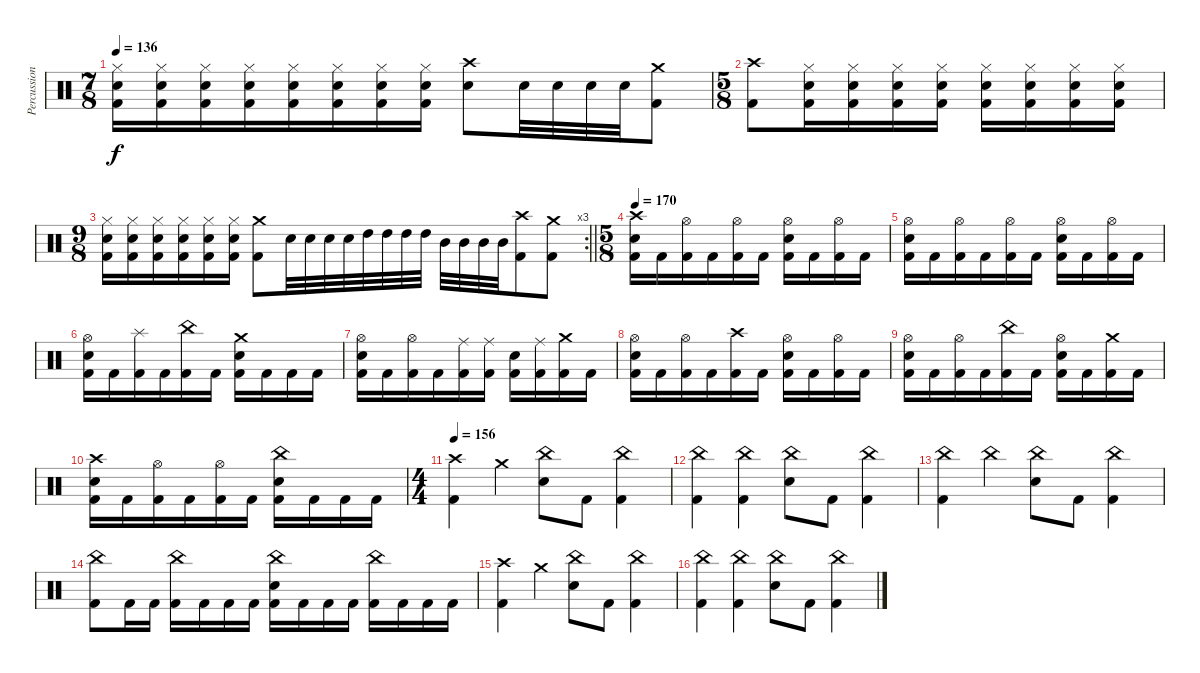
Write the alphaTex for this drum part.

\track ("Percussion" "Percussion") {instrument percussion}
\staff {score}
\articulation defaults
\ts (7 8)
\tempo 136
\clef neutral
\ks c
("Hi-Hat (closed)" "Electric Snare (hit)" "Kick (hit) 2").16{dy f} ("Hi-Hat (closed)" "Electric Snare (hit)" "Kick (hit) 2").16 ("Hi-Hat (closed)" "Electric Snare (hit)" "Kick (hit) 2").16 ("Hi-Hat (closed)" "Electric Snare (hit)" "Kick (hit) 2").16 ("Hi-Hat (closed)" "Electric Snare (hit)" "Kick (hit) 2").16 ("Hi-Hat (closed)" "Electric Snare (hit)" "Kick (hit) 2").16 ("Hi-Hat (closed)" "Electric Snare (hit)" "Kick (hit) 2").16 ("Hi-Hat (closed)" "Electric Snare (hit)" "Kick (hit) 2").16 ("Crash high (hit)" "Electric Snare (hit)").8 "Electric Snare (hit)".32 "Electric Snare (hit)".32 "Electric Snare (hit)".32 "Electric Snare (hit)".32 ("Crash medium (hit)" "Kick (hit) 2").8 |
\ts (5 8)
("Crash high (hit)" "Kick (hit) 2").8 ("Hi-Hat (closed)" "Electric Snare (hit)" "Kick (hit) 2").16 ("Hi-Hat (closed)" "Electric Snare (hit)" "Kick (hit) 2").16 ("Hi-Hat (closed)" "Electric Snare (hit)" "Kick (hit) 2").16 ("Hi-Hat (closed)" "Electric Snare (hit)" "Kick (hit) 2").16 ("Hi-Hat (closed)" "Electric Snare (hit)" "Kick (hit) 2").16 ("Hi-Hat (closed)" "Electric Snare (hit)" "Kick (hit) 2").16 ("Hi-Hat (closed)" "Electric Snare (hit)" "Kick (hit) 2").16 ("Hi-Hat (closed)" "Electric Snare (hit)" "Kick (hit) 2").16 |
\rc 3
\ts (9 8)
\barLineRight lightlight
("Hi-Hat (closed)" "Electric Snare (hit)" "Kick (hit) 2").16 ("Hi-Hat (closed)" "Electric Snare (hit)" "Kick (hit) 2").16 ("Hi-Hat (closed)" "Electric Snare (hit)" "Kick (hit) 2").16 ("Hi-Hat (closed)" "Electric Snare (hit)" "Kick (hit) 2").16 ("Hi-Hat (closed)" "Electric Snare (hit)" "Kick (hit) 2").16 ("Hi-Hat (closed)" "Electric Snare (hit)" "Kick (hit) 2").16 ("Crash medium (hit)" "Kick (hit) 2").8 "Electric Snare (hit)".32 "Electric Snare (hit)".32 "Electric Snare (hit)".32 "Electric Snare (hit)".32 "High Tom (hit)".32 "High Tom (hit)".32 "High Tom (hit)".32 "High Tom (hit)".32 "Mid Tom (hit)".32 "Mid Tom (hit)".32 "Mid Tom (hit)".32 "Mid Tom (hit)".32 ("Crash high (hit)" "Kick (hit) 2").8 ("Crash medium (hit)" "Kick (hit) 2").8 |
\ts (5 8)
\tempo 170
("Crash high (hit)" "Electric Snare (hit)" "Kick (hit) 2").16 "Kick (hit) 2".16 ("Hi-Hat (open)" "Kick (hit) 2").16 "Kick (hit) 2".16 ("Hi-Hat (open)" "Kick (hit) 2").16 "Kick (hit) 2".16 ("Hi-Hat (open)" "Electric Snare (hit)" "Kick (hit) 2").16 "Kick (hit) 2".16 ("Hi-Hat (open)" "Kick (hit) 2").16 "Kick (hit) 2".16 |
("Hi-Hat (open)" "Electric Snare (hit)" "Kick (hit) 2").16 "Kick (hit) 2".16 ("Hi-Hat (open)" "Kick (hit) 2").16 "Kick (hit) 2".16 ("Hi-Hat (open)" "Kick (hit) 2").16 "Kick (hit) 2".16 ("Hi-Hat (open)" "Electric Snare (hit)" "Kick (hit) 2").16 "Kick (hit) 2".16 ("Hi-Hat (open)" "Kick (hit) 2").16 "Kick (hit) 2".16 |
("Hi-Hat (open)" "Electric Snare (hit)" "Kick (hit) 2").16 "Kick (hit) 2".16 ("Splash (hit)" "Kick (hit) 2").16 "Kick (hit) 2".16 ("China (hit)" "Kick (hit) 2").16 "Kick (hit) 2".16 ("Crash medium (hit)" "Electric Snare (hit)" "Kick (hit) 2").16 "Kick (hit) 2".16 "Kick (hit) 2".16 "Kick (hit) 2".16 |
("Hi-Hat (open)" "Electric Snare (hit)" "Kick (hit) 2").16 "Kick (hit) 2".16 ("Hi-Hat (open)" "Kick (hit) 2").16 "Kick (hit) 2".16 ("Ride (middle)" "Kick (hit) 2").16 ("Ride (middle)" "Kick (hit) 2").16 ("Electric Snare (hit)" "Kick (hit) 2").16 ("Ride (middle)" "Kick (hit) 2").16 ("Crash medium (hit)" "Kick (hit) 2").16 "Kick (hit) 2".16 |
("Hi-Hat (open)" "Electric Snare (hit)" "Kick (hit) 2").16 "Kick (hit) 2".16 ("Hi-Hat (open)" "Kick (hit) 2").16 "Kick (hit) 2".16 ("Crash high (hit)" "Kick (hit) 2").16 "Kick (hit) 2".16 ("Hi-Hat (open)" "Electric Snare (hit)" "Kick (hit) 2").16 "Kick (hit) 2".16 ("Hi-Hat (open)" "Kick (hit) 2").16 "Kick (hit) 2".16 |
("Hi-Hat (open)" "Electric Snare (hit)" "Kick (hit) 2").16 "Kick (hit) 2".16 ("Hi-Hat (open)" "Kick (hit) 2").16 "Kick (hit) 2".16 ("China (hit)" "Kick (hit) 2").16 "Kick (hit) 2".16 ("Hi-Hat (open)" "Electric Snare (hit)" "Kick (hit) 2").16 "Kick (hit) 2".16 ("Crash medium (hit)" "Kick (hit) 2").16 "Kick (hit) 2".16 |
("Crash high (hit)" "Electric Snare (hit)" "Kick (hit) 2").16 "Kick (hit) 2".16 ("Hi-Hat (open)" "Kick (hit) 2").16 "Kick (hit) 2".16 ("Hi-Hat (open)" "Kick (hit) 2").16 "Kick (hit) 2".16 ("China (hit)" "Electric Snare (hit)" "Kick (hit) 2").16 "Kick (hit) 2".16 "Kick (hit) 2".16 "Kick (hit) 2".16 |
\ts (4 4)
\tempo 156
("Crash high (hit)" "Kick (hit) 2").4 "Crash medium (hit)".4 ("China (hit)" "Electric Snare (hit)").8 "Kick (hit) 2".8 ("China (hit)" "Kick (hit) 2").4 |
("China (hit)" "Kick (hit) 2").4 ("China (hit)" "Kick (hit) 2").4 ("China (hit)" "Electric Snare (hit)").8 "Kick (hit) 2".8 ("China (hit)" "Kick (hit) 2").4 |
("China (hit)" "Kick (hit) 2").4 "China (hit)".4 ("China (hit)" "Electric Snare (hit)").8 "Kick (hit) 2".8 ("China (hit)" "Kick (hit) 2").4 |
("China (hit)" "Kick (hit) 2").8 "Kick (hit) 2".16 "Kick (hit) 2".16 ("China (hit)" "Kick (hit) 2").16 "Kick (hit) 2".16 "Kick (hit) 2".16 "Kick (hit) 2".16 ("China (hit)" "Electric Snare (hit)" "Kick (hit) 2").16 "Kick (hit) 2".16 "Kick (hit) 2".16 "Kick (hit) 2".16 ("China (hit)" "Kick (hit) 2").16 "Kick (hit) 2".16 "Kick (hit) 2".16 "Kick (hit) 2".16 |
("Crash high (hit)" "Kick (hit) 2").4 "Crash medium (hit)".4 ("China (hit)" "Electric Snare (hit)").8 "Kick (hit) 2".8 ("China (hit)" "Kick (hit) 2").4 |
("China (hit)" "Kick (hit) 2").4 ("China (hit)" "Kick (hit) 2").4 ("China (hit)" "Electric Snare (hit)").8 "Kick (hit) 2".8 ("China (hit)" "Kick (hit) 2").4
